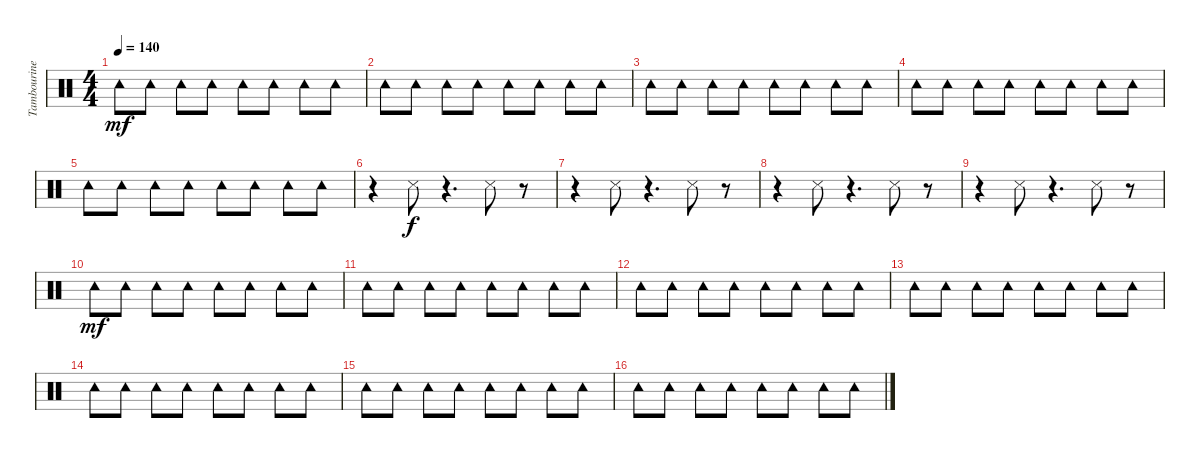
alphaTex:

\track ("Tambourine" "Tambourine") {instrument percussion}
\staff {score}
\articulation defaults
\ts (4 4)
\tempo 140
\clef neutral
\ks c "Tambourine (hit)".8{dy mf} "Tambourine (hit)".8 "Tambourine (hit)".8 "Tambourine (hit)".8 "Tambourine (hit)".8 "Tambourine (hit)".8 "Tambourine (hit)".8 "Tambourine (hit)".8
|
"Tambourine (hit)".8 "Tambourine (hit)".8 "Tambourine (hit)".8 "Tambourine (hit)".8 "Tambourine (hit)".8 "Tambourine (hit)".8 "Tambourine (hit)".8 "Tambourine (hit)".8 |
"Tambourine (hit)".8 "Tambourine (hit)".8 "Tambourine (hit)".8 "Tambourine (hit)".8 "Tambourine (hit)".8 "Tambourine (hit)".8 "Tambourine (hit)".8 "Tambourine (hit)".8 |
"Tambourine (hit)".8 "Tambourine (hit)".8 "Tambourine (hit)".8 "Tambourine (hit)".8 "Tambourine (hit)".8 "Tambourine (hit)".8 "Tambourine (hit)".8 "Tambourine (hit)".8 |
"Tambourine (hit)".8 "Tambourine (hit)".8 "Tambourine (hit)".8 "Tambourine (hit)".8 "Tambourine (hit)".8 "Tambourine (hit)".8 "Tambourine (hit)".8 "Tambourine (hit)".8 |
r.4 "Snare (side stick) 3".8{dy f} r.4{d} "Snare (side stick) 3".8 r.8 |
r.4 "Snare (side stick) 3".8 r.4{d} "Snare (side stick) 3".8 r.8 |
r.4 "Snare (side stick) 3".8 r.4{d} "Snare (side stick) 3".8 r.8 |
r.4 "Snare (side stick) 3".8 r.4{d} "Snare (side stick) 3".8 r.8 |
"Tambourine (hit)".8{dy mf} "Tambourine (hit)".8 "Tambourine (hit)".8 "Tambourine (hit)".8 "Tambourine (hit)".8 "Tambourine (hit)".8 "Tambourine (hit)".8 "Tambourine (hit)".8 |
"Tambourine (hit)".8 "Tambourine (hit)".8 "Tambourine (hit)".8 "Tambourine (hit)".8 "Tambourine (hit)".8 "Tambourine (hit)".8 "Tambourine (hit)".8 "Tambourine (hit)".8 |
"Tambourine (hit)".8 "Tambourine (hit)".8 "Tambourine (hit)".8 "Tambourine (hit)".8 "Tambourine (hit)".8 "Tambourine (hit)".8 "Tambourine (hit)".8 "Tambourine (hit)".8 |
"Tambourine (hit)".8 "Tambourine (hit)".8 "Tambourine (hit)".8 "Tambourine (hit)".8 "Tambourine (hit)".8 "Tambourine (hit)".8 "Tambourine (hit)".8 "Tambourine (hit)".8 |
"Tambourine (hit)".8 "Tambourine (hit)".8 "Tambourine (hit)".8 "Tambourine (hit)".8 "Tambourine (hit)".8 "Tambourine (hit)".8 "Tambourine (hit)".8 "Tambourine (hit)".8 |
"Tambourine (hit)".8 "Tambourine (hit)".8 "Tambourine (hit)".8 "Tambourine (hit)".8 "Tambourine (hit)".8 "Tambourine (hit)".8 "Tambourine (hit)".8 "Tambourine (hit)".8 |
"Tambourine (hit)".8 "Tambourine (hit)".8 "Tambourine (hit)".8 "Tambourine (hit)".8 "Tambourine (hit)".8 "Tambourine (hit)".8 "Tambourine (hit)".8 "Tambourine (hit)".8
